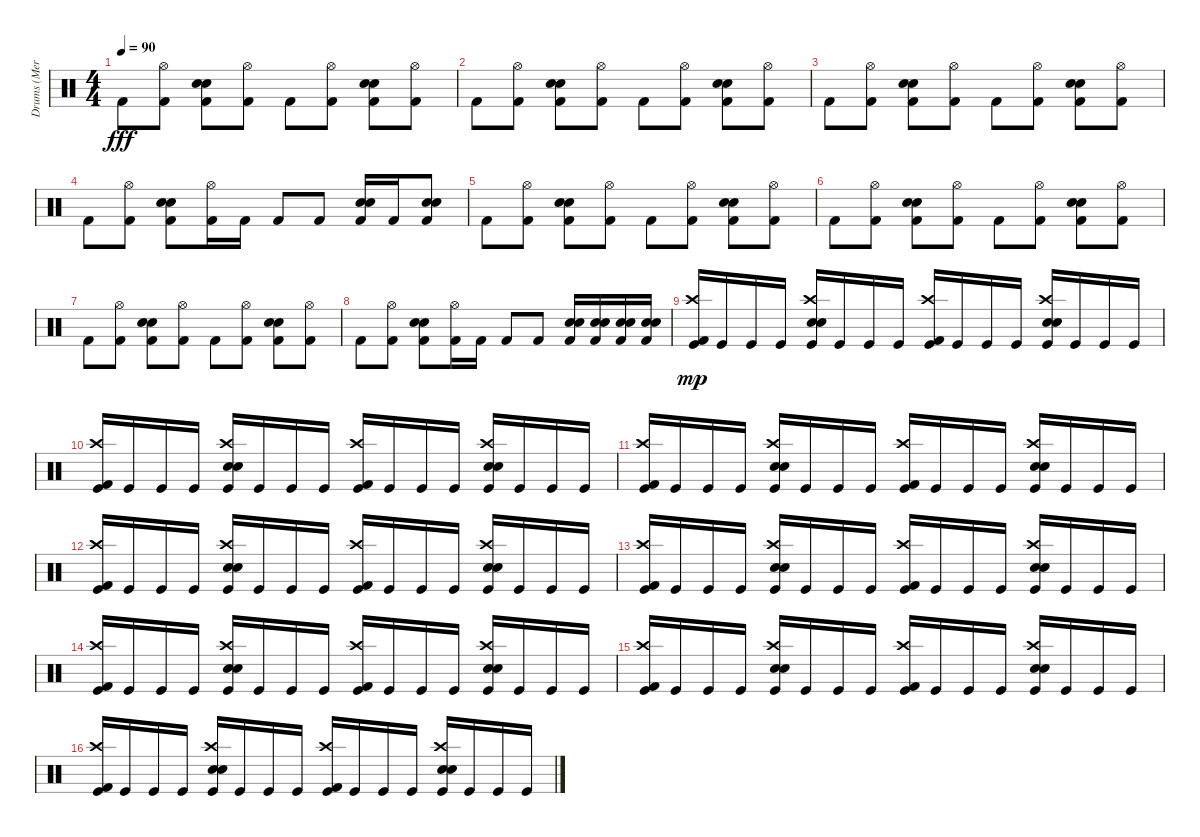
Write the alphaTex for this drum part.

\track ("Drums (Merlin)" "Drums (Mer") {instrument percussion}
\staff {score}
\articulation defaults
\ts (4 4)
\tempo 90
\clef neutral
\ks c "Kick (hit) 2".8{dy fff}
("Hi-Hat (open)" "Kick (hit) 2").8 ("Electric Snare (hit)" "Snare (hit) 2" "Kick (hit) 2").8 ("Hi-Hat (open)" "Kick (hit) 2").8 "Kick (hit) 2".8 ("Hi-Hat (open)" "Kick (hit) 2").8 ("Electric Snare (hit)" "Snare (hit) 2" "Kick (hit) 2").8 ("Hi-Hat (open)" "Kick (hit) 2").8 |
"Kick (hit) 2".8 ("Hi-Hat (open)" "Kick (hit) 2").8 ("Electric Snare (hit)" "Snare (hit) 2" "Kick (hit) 2").8 ("Hi-Hat (open)" "Kick (hit) 2").8 "Kick (hit) 2".8 ("Hi-Hat (open)" "Kick (hit) 2").8 ("Electric Snare (hit)" "Snare (hit) 2" "Kick (hit) 2").8 ("Hi-Hat (open)" "Kick (hit) 2").8 |
"Kick (hit) 2".8 ("Hi-Hat (open)" "Kick (hit) 2").8 ("Electric Snare (hit)" "Snare (hit) 2" "Kick (hit) 2").8 ("Hi-Hat (open)" "Kick (hit) 2").8 "Kick (hit) 2".8 ("Hi-Hat (open)" "Kick (hit) 2").8 ("Electric Snare (hit)" "Snare (hit) 2" "Kick (hit) 2").8 ("Hi-Hat (open)" "Kick (hit) 2").8 |
"Kick (hit) 2".8 ("Hi-Hat (open)" "Kick (hit) 2").8 ("Electric Snare (hit)" "Snare (hit) 2" "Kick (hit) 2").8 ("Hi-Hat (open)" "Kick (hit) 2").16 "Kick (hit) 2".16 "Kick (hit) 2".8 "Kick (hit) 2".8 ("Electric Snare (hit)" "Snare (hit) 2" "Kick (hit) 2").16 "Kick (hit) 2".16 ("Electric Snare (hit)" "Snare (hit) 2" "Kick (hit) 2").8 |
"Kick (hit) 2".8 ("Hi-Hat (open)" "Kick (hit) 2").8 ("Electric Snare (hit)" "Snare (hit) 2" "Kick (hit) 2").8 ("Hi-Hat (open)" "Kick (hit) 2").8 "Kick (hit) 2".8 ("Hi-Hat (open)" "Kick (hit) 2").8 ("Electric Snare (hit)" "Snare (hit) 2" "Kick (hit) 2").8 ("Hi-Hat (open)" "Kick (hit) 2").8 |
"Kick (hit) 2".8 ("Hi-Hat (open)" "Kick (hit) 2").8 ("Electric Snare (hit)" "Snare (hit) 2" "Kick (hit) 2").8 ("Hi-Hat (open)" "Kick (hit) 2").8 "Kick (hit) 2".8 ("Hi-Hat (open)" "Kick (hit) 2").8 ("Electric Snare (hit)" "Snare (hit) 2" "Kick (hit) 2").8 ("Hi-Hat (open)" "Kick (hit) 2").8 |
"Kick (hit) 2".8 ("Hi-Hat (open)" "Kick (hit) 2").8 ("Electric Snare (hit)" "Snare (hit) 2" "Kick (hit) 2").8 ("Hi-Hat (open)" "Kick (hit) 2").8 "Kick (hit) 2".8 ("Hi-Hat (open)" "Kick (hit) 2").8 ("Electric Snare (hit)" "Snare (hit) 2" "Kick (hit) 2").8 ("Hi-Hat (open)" "Kick (hit) 2").8 |
"Kick (hit) 2".8 ("Hi-Hat (open)" "Kick (hit) 2").8 ("Electric Snare (hit)" "Snare (hit) 2" "Kick (hit) 2").8 ("Hi-Hat (open)" "Kick (hit) 2").16 "Kick (hit) 2".16 "Kick (hit) 2".8 "Kick (hit) 2".8 ("Electric Snare (hit)" "Snare (hit) 2" "Kick (hit) 2").16 ("Electric Snare (hit)" "Snare (hit) 2" "Kick (hit) 2").16 ("Electric Snare (hit)" "Snare (hit) 2" "Kick (hit) 2").16 ("Electric Snare (hit)" "Snare (hit) 2" "Kick (hit) 2").16 |
("Crash high (hit)" "Kick (hit) 2" "Kick (hit)").16{dy mp} "Kick (hit)".16 "Kick (hit)".16 "Kick (hit)".16 ("Electric Snare (hit)" "Crash high (hit)" "Snare (hit) 2" "Kick (hit)").16 "Kick (hit)".16 "Kick (hit)".16 "Kick (hit)".16 ("Crash high (hit)" "Kick (hit) 2" "Kick (hit)").16 "Kick (hit)".16 "Kick (hit)".16 "Kick (hit)".16 ("Electric Snare (hit)" "Crash high (hit)" "Snare (hit) 2" "Kick (hit)").16 "Kick (hit)".16 "Kick (hit)".16 "Kick (hit)".16 |
("Crash high (hit)" "Kick (hit) 2" "Kick (hit)").16 "Kick (hit)".16 "Kick (hit)".16 "Kick (hit)".16 ("Electric Snare (hit)" "Crash high (hit)" "Snare (hit) 2" "Kick (hit)").16 "Kick (hit)".16 "Kick (hit)".16 "Kick (hit)".16 ("Crash high (hit)" "Kick (hit) 2" "Kick (hit)").16 "Kick (hit)".16 "Kick (hit)".16 "Kick (hit)".16 ("Electric Snare (hit)" "Crash high (hit)" "Snare (hit) 2" "Kick (hit)").16 "Kick (hit)".16 "Kick (hit)".16 "Kick (hit)".16 |
("Crash high (hit)" "Kick (hit) 2" "Kick (hit)").16 "Kick (hit)".16 "Kick (hit)".16 "Kick (hit)".16 ("Electric Snare (hit)" "Crash high (hit)" "Snare (hit) 2" "Kick (hit)").16 "Kick (hit)".16 "Kick (hit)".16 "Kick (hit)".16 ("Crash high (hit)" "Kick (hit) 2" "Kick (hit)").16 "Kick (hit)".16 "Kick (hit)".16 "Kick (hit)".16 ("Electric Snare (hit)" "Crash high (hit)" "Snare (hit) 2" "Kick (hit)").16 "Kick (hit)".16 "Kick (hit)".16 "Kick (hit)".16 |
("Crash high (hit)" "Kick (hit) 2" "Kick (hit)").16 "Kick (hit)".16 "Kick (hit)".16 "Kick (hit)".16 ("Electric Snare (hit)" "Crash high (hit)" "Snare (hit) 2" "Kick (hit)").16 "Kick (hit)".16 "Kick (hit)".16 "Kick (hit)".16 ("Crash high (hit)" "Kick (hit) 2" "Kick (hit)").16 "Kick (hit)".16 "Kick (hit)".16 "Kick (hit)".16 ("Electric Snare (hit)" "Crash high (hit)" "Snare (hit) 2" "Kick (hit)").16 "Kick (hit)".16 "Kick (hit)".16 "Kick (hit)".16 |
("Crash high (hit)" "Kick (hit) 2" "Kick (hit)").16 "Kick (hit)".16 "Kick (hit)".16 "Kick (hit)".16 ("Electric Snare (hit)" "Crash high (hit)" "Snare (hit) 2" "Kick (hit)").16 "Kick (hit)".16 "Kick (hit)".16 "Kick (hit)".16 ("Crash high (hit)" "Kick (hit) 2" "Kick (hit)").16 "Kick (hit)".16 "Kick (hit)".16 "Kick (hit)".16 ("Electric Snare (hit)" "Crash high (hit)" "Snare (hit) 2" "Kick (hit)").16 "Kick (hit)".16 "Kick (hit)".16 "Kick (hit)".16 |
("Crash high (hit)" "Kick (hit) 2" "Kick (hit)").16 "Kick (hit)".16 "Kick (hit)".16 "Kick (hit)".16 ("Electric Snare (hit)" "Crash high (hit)" "Snare (hit) 2" "Kick (hit)").16 "Kick (hit)".16 "Kick (hit)".16 "Kick (hit)".16 ("Crash high (hit)" "Kick (hit) 2" "Kick (hit)").16 "Kick (hit)".16 "Kick (hit)".16 "Kick (hit)".16 ("Electric Snare (hit)" "Crash high (hit)" "Snare (hit) 2" "Kick (hit)").16 "Kick (hit)".16 "Kick (hit)".16 "Kick (hit)".16 |
("Crash high (hit)" "Kick (hit) 2" "Kick (hit)").16 "Kick (hit)".16 "Kick (hit)".16 "Kick (hit)".16 ("Electric Snare (hit)" "Crash high (hit)" "Snare (hit) 2" "Kick (hit)").16 "Kick (hit)".16 "Kick (hit)".16 "Kick (hit)".16 ("Crash high (hit)" "Kick (hit) 2" "Kick (hit)").16 "Kick (hit)".16 "Kick (hit)".16 "Kick (hit)".16 ("Electric Snare (hit)" "Crash high (hit)" "Snare (hit) 2" "Kick (hit)").16 "Kick (hit)".16 "Kick (hit)".16 "Kick (hit)".16 |
("Crash high (hit)" "Kick (hit) 2" "Kick (hit)").16 "Kick (hit)".16 "Kick (hit)".16 "Kick (hit)".16 ("Electric Snare (hit)" "Crash high (hit)" "Snare (hit) 2" "Kick (hit)").16 "Kick (hit)".16 "Kick (hit)".16 "Kick (hit)".16 ("Crash high (hit)" "Kick (hit) 2" "Kick (hit)").16 "Kick (hit)".16 "Kick (hit)".16 "Kick (hit)".16 ("Electric Snare (hit)" "Crash high (hit)" "Snare (hit) 2" "Kick (hit)").16 "Kick (hit)".16 "Kick (hit)".16 "Kick (hit)".16
